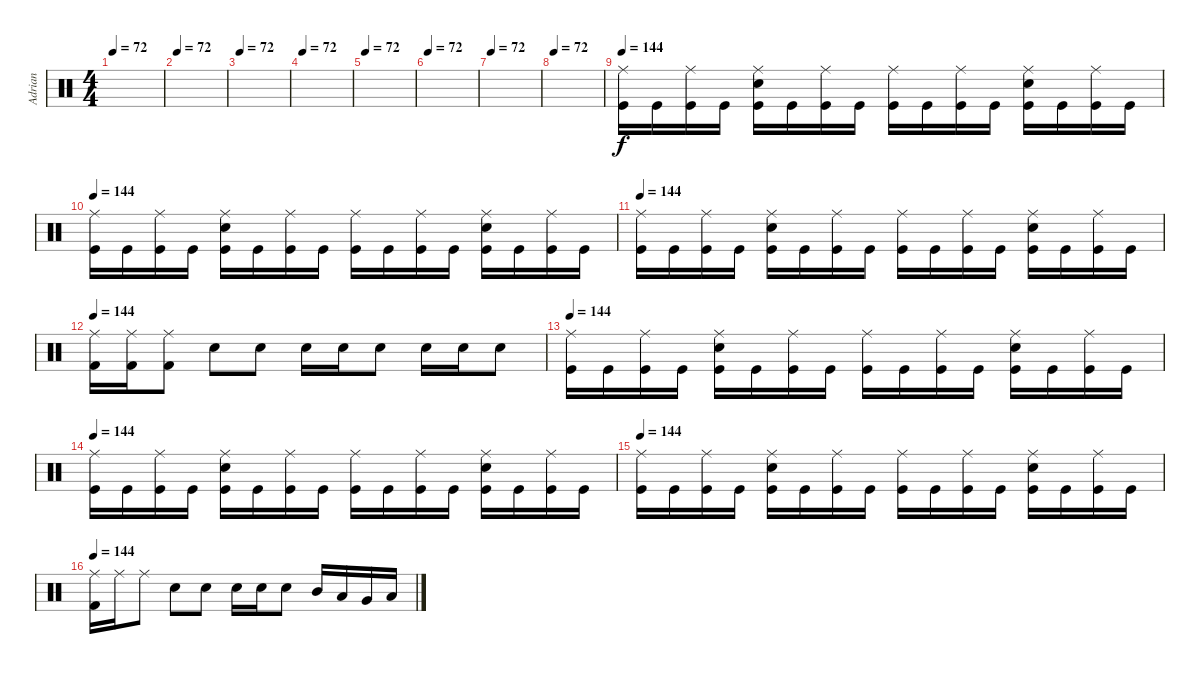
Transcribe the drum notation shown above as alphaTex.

\track ("Adrian" "Adrian") {instrument percussion}
\staff {score}
\articulation defaults
\ts (4 4)
\tempo 70
\tempo 72
\clef neutral
\ks c
|
\tempo 70
\tempo 72
|
\tempo 70
\tempo 72
|
\tempo 70
\tempo 72
|
\tempo 70
\tempo 72
|
\tempo 70
\tempo 72
|
\tempo 70
\tempo 72
|
\tempo 70
\tempo 72
|
\tempo 125
\tempo 144
("Kick (hit)" "Ride (middle)").16 "Kick (hit)".16 ("Kick (hit)" "Ride (middle)").16 "Kick (hit)".16 ("Kick (hit)" "Snare (hit) 2" "Ride (middle)").16 "Kick (hit)".16 ("Kick (hit)" "Ride (middle)").16 "Kick (hit)".16 ("Kick (hit)" "Ride (middle)").16 "Kick (hit)".16 ("Kick (hit)" "Ride (middle)").16 "Kick (hit)".16 ("Kick (hit)" "Snare (hit) 2" "Ride (middle)").16 "Kick (hit)".16 ("Kick (hit)" "Ride (middle)").16 "Kick (hit)".16 |
\tempo 144
("Kick (hit)" "Ride (middle)").16 "Kick (hit)".16 ("Kick (hit)" "Ride (middle)").16 "Kick (hit)".16 ("Kick (hit)" "Snare (hit) 2" "Ride (middle)").16 "Kick (hit)".16 ("Kick (hit)" "Ride (middle)").16 "Kick (hit)".16 ("Kick (hit)" "Ride (middle)").16 "Kick (hit)".16 ("Kick (hit)" "Ride (middle)").16 "Kick (hit)".16 ("Kick (hit)" "Snare (hit) 2" "Ride (middle)").16 "Kick (hit)".16 ("Kick (hit)" "Ride (middle)").16 "Kick (hit)".16 |
\tempo 144
("Kick (hit)" "Ride (middle)").16 "Kick (hit)".16 ("Kick (hit)" "Ride (middle)").16 "Kick (hit)".16 ("Kick (hit)" "Snare (hit) 2" "Ride (middle)").16 "Kick (hit)".16 ("Kick (hit)" "Ride (middle)").16 "Kick (hit)".16 ("Kick (hit)" "Ride (middle)").16 "Kick (hit)".16 ("Kick (hit)" "Ride (middle)").16 "Kick (hit)".16 ("Kick (hit)" "Snare (hit) 2" "Ride (middle)").16 "Kick (hit)".16 ("Kick (hit)" "Ride (middle)").16 "Kick (hit)".16 |
\tempo 144
("Kick (hit) 2" "Ride (middle)").16 ("Kick (hit) 2" "Ride (middle)").16 ("Kick (hit) 2" "Ride (middle)").8 "Snare (hit) 2".8 "Snare (hit) 2".8 "Snare (hit) 2".16 "Snare (hit) 2".16 "Snare (hit) 2".8 "Snare (hit) 2".16 "Snare (hit) 2".16 "Snare (hit) 2".8 |
\tempo 144
("Kick (hit)" "Ride (middle)").16 "Kick (hit)".16 ("Kick (hit)" "Ride (middle)").16 "Kick (hit)".16 ("Kick (hit)" "Snare (hit) 2" "Ride (middle)").16 "Kick (hit)".16 ("Kick (hit)" "Ride (middle)").16 "Kick (hit)".16 ("Kick (hit)" "Ride (middle)").16 "Kick (hit)".16 ("Kick (hit)" "Ride (middle)").16 "Kick (hit)".16 ("Kick (hit)" "Snare (hit) 2" "Ride (middle)").16 "Kick (hit)".16 ("Kick (hit)" "Ride (middle)").16 "Kick (hit)".16 |
\tempo 144
("Kick (hit)" "Ride (middle)").16 "Kick (hit)".16 ("Kick (hit)" "Ride (middle)").16 "Kick (hit)".16 ("Kick (hit)" "Snare (hit) 2" "Ride (middle)").16 "Kick (hit)".16 ("Kick (hit)" "Ride (middle)").16 "Kick (hit)".16 ("Kick (hit)" "Ride (middle)").16 "Kick (hit)".16 ("Kick (hit)" "Ride (middle)").16 "Kick (hit)".16 ("Kick (hit)" "Snare (hit) 2" "Ride (middle)").16 "Kick (hit)".16 ("Kick (hit)" "Ride (middle)").16 "Kick (hit)".16 |
\tempo 144
("Kick (hit)" "Ride (middle)").16 "Kick (hit)".16 ("Kick (hit)" "Ride (middle)").16 "Kick (hit)".16 ("Kick (hit)" "Snare (hit) 2" "Ride (middle)").16 "Kick (hit)".16 ("Kick (hit)" "Ride (middle)").16 "Kick (hit)".16 ("Kick (hit)" "Ride (middle)").16 "Kick (hit)".16 ("Kick (hit)" "Ride (middle)").16 "Kick (hit)".16 ("Kick (hit)" "Snare (hit) 2" "Ride (middle)").16 "Kick (hit)".16 ("Kick (hit)" "Ride (middle)").16 "Kick (hit)".16 |
\tempo 144
("Kick (hit) 2" "Ride (middle)").16 "Ride (middle)".16 "Ride (middle)".8 "Snare (hit) 2".8 "Snare (hit) 2".8 "Snare (hit) 2".16 "Snare (hit) 2".16 "Snare (hit) 2".8 "Mid Tom (hit)".16 "Low Tom (hit)".16 "Very Low Tom (hit)".16 "Low Floor Tom (hit)".16
